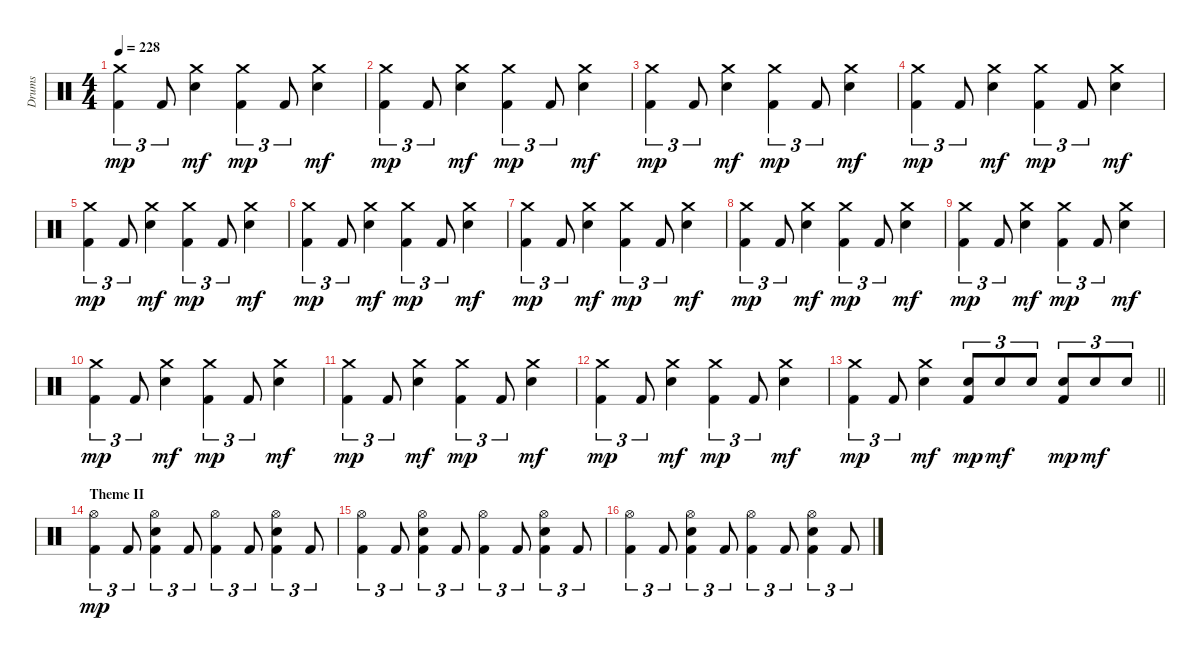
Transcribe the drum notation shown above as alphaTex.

\track ("Drums" "Drums") {instrument percussion}
\staff {score}
\articulation defaults
\ts (4 4)
\tempo 228
\clef neutral
\ks c
("Crash medium (hit)" "Kick (hit) 2").4{tu (3 2) dy mp} "Kick (hit) 2".8{tu (3 2)} ("Crash medium (hit)" "Electric Snare (hit)").4{dy mf} ("Crash medium (hit)" "Kick (hit) 2").4{tu (3 2) dy mp} "Kick (hit) 2".8{tu (3 2)} ("Crash medium (hit)" "Electric Snare (hit)").4{dy mf} |
("Crash medium (hit)" "Kick (hit) 2").4{tu (3 2) dy mp} "Kick (hit) 2".8{tu (3 2)} ("Crash medium (hit)" "Electric Snare (hit)").4{dy mf} ("Crash medium (hit)" "Kick (hit) 2").4{tu (3 2) dy mp} "Kick (hit) 2".8{tu (3 2)} ("Crash medium (hit)" "Electric Snare (hit)").4{dy mf} |
("Crash medium (hit)" "Kick (hit) 2").4{tu (3 2) dy mp} "Kick (hit) 2".8{tu (3 2)} ("Crash medium (hit)" "Electric Snare (hit)").4{dy mf} ("Crash medium (hit)" "Kick (hit) 2").4{tu (3 2) dy mp} "Kick (hit) 2".8{tu (3 2)} ("Crash medium (hit)" "Electric Snare (hit)").4{dy mf} |
("Crash medium (hit)" "Kick (hit) 2").4{tu (3 2) dy mp} "Kick (hit) 2".8{tu (3 2)} ("Crash medium (hit)" "Electric Snare (hit)").4{dy mf} ("Crash medium (hit)" "Kick (hit) 2").4{tu (3 2) dy mp} "Kick (hit) 2".8{tu (3 2)} ("Crash medium (hit)" "Electric Snare (hit)").4{dy mf} |
("Crash medium (hit)" "Kick (hit) 2").4{tu (3 2) dy mp} "Kick (hit) 2".8{tu (3 2)} ("Crash medium (hit)" "Electric Snare (hit)").4{dy mf} ("Crash medium (hit)" "Kick (hit) 2").4{tu (3 2) dy mp} "Kick (hit) 2".8{tu (3 2)} ("Crash medium (hit)" "Electric Snare (hit)").4{dy mf} |
("Crash medium (hit)" "Kick (hit) 2").4{tu (3 2) dy mp} "Kick (hit) 2".8{tu (3 2)} ("Crash medium (hit)" "Electric Snare (hit)").4{dy mf} ("Crash medium (hit)" "Kick (hit) 2").4{tu (3 2) dy mp} "Kick (hit) 2".8{tu (3 2)} ("Crash medium (hit)" "Electric Snare (hit)").4{dy mf} |
("Crash medium (hit)" "Kick (hit) 2").4{tu (3 2) dy mp} "Kick (hit) 2".8{tu (3 2)} ("Crash medium (hit)" "Electric Snare (hit)").4{dy mf} ("Crash medium (hit)" "Kick (hit) 2").4{tu (3 2) dy mp} "Kick (hit) 2".8{tu (3 2)} ("Crash medium (hit)" "Electric Snare (hit)").4{dy mf} |
("Crash medium (hit)" "Kick (hit) 2").4{tu (3 2) dy mp} "Kick (hit) 2".8{tu (3 2)} ("Crash medium (hit)" "Electric Snare (hit)").4{dy mf} ("Crash medium (hit)" "Kick (hit) 2").4{tu (3 2) dy mp} "Kick (hit) 2".8{tu (3 2)} ("Crash medium (hit)" "Electric Snare (hit)").4{dy mf} |
("Crash medium (hit)" "Kick (hit) 2").4{tu (3 2) dy mp} "Kick (hit) 2".8{tu (3 2)} ("Crash medium (hit)" "Electric Snare (hit)").4{dy mf} ("Crash medium (hit)" "Kick (hit) 2").4{tu (3 2) dy mp} "Kick (hit) 2".8{tu (3 2)} ("Crash medium (hit)" "Electric Snare (hit)").4{dy mf} |
("Crash medium (hit)" "Kick (hit) 2").4{tu (3 2) dy mp} "Kick (hit) 2".8{tu (3 2)} ("Crash medium (hit)" "Electric Snare (hit)").4{dy mf} ("Crash medium (hit)" "Kick (hit) 2").4{tu (3 2) dy mp} "Kick (hit) 2".8{tu (3 2)} ("Crash medium (hit)" "Electric Snare (hit)").4{dy mf} |
("Crash medium (hit)" "Kick (hit) 2").4{tu (3 2) dy mp} "Kick (hit) 2".8{tu (3 2)} ("Crash medium (hit)" "Electric Snare (hit)").4{dy mf} ("Crash medium (hit)" "Kick (hit) 2").4{tu (3 2) dy mp} "Kick (hit) 2".8{tu (3 2)} ("Crash medium (hit)" "Electric Snare (hit)").4{dy mf} |
("Crash medium (hit)" "Kick (hit) 2").4{tu (3 2) dy mp} "Kick (hit) 2".8{tu (3 2)} ("Crash medium (hit)" "Electric Snare (hit)").4{dy mf} ("Crash medium (hit)" "Kick (hit) 2").4{tu (3 2) dy mp} "Kick (hit) 2".8{tu (3 2)} ("Crash medium (hit)" "Electric Snare (hit)").4{dy mf} |
\barLineRight lightlight
("Crash medium (hit)" "Kick (hit) 2").4{tu (3 2) dy mp} "Kick (hit) 2".8{tu (3 2)} ("Crash medium (hit)" "Electric Snare (hit)").4{dy mf} ("Electric Snare (hit)" "Kick (hit) 2").8{tu (3 2) dy mp} "Electric Snare (hit)".8{tu (3 2) dy mf} "Electric Snare (hit)".8{tu (3 2)} ("Electric Snare (hit)" "Kick (hit) 2").8{tu (3 2) dy mp} "Electric Snare (hit)".8{tu (3 2) dy mf} "Electric Snare (hit)".8{tu (3 2)} |
\section ("" "Theme II")
("Hi-Hat (open)" "Kick (hit) 2").4{tu (3 2) dy mp} "Kick (hit) 2".8{tu (3 2)} ("Hi-Hat (open)" "Electric Snare (hit)" "Kick (hit) 2").4{tu (3 2)} "Kick (hit) 2".8{tu (3 2)} ("Hi-Hat (open)" "Kick (hit) 2").4{tu (3 2)} "Kick (hit) 2".8{tu (3 2)} ("Hi-Hat (open)" "Electric Snare (hit)" "Kick (hit) 2").4{tu (3 2)} "Kick (hit) 2".8{tu (3 2)} |
("Hi-Hat (open)" "Kick (hit) 2").4{tu (3 2)} "Kick (hit) 2".8{tu (3 2)} ("Hi-Hat (open)" "Electric Snare (hit)" "Kick (hit) 2").4{tu (3 2)} "Kick (hit) 2".8{tu (3 2)} ("Hi-Hat (open)" "Kick (hit) 2").4{tu (3 2)} "Kick (hit) 2".8{tu (3 2)} ("Hi-Hat (open)" "Electric Snare (hit)" "Kick (hit) 2").4{tu (3 2)} "Kick (hit) 2".8{tu (3 2)} |
("Hi-Hat (open)" "Kick (hit) 2").4{tu (3 2)} "Kick (hit) 2".8{tu (3 2)} ("Hi-Hat (open)" "Electric Snare (hit)" "Kick (hit) 2").4{tu (3 2)} "Kick (hit) 2".8{tu (3 2)} ("Hi-Hat (open)" "Kick (hit) 2").4{tu (3 2)} "Kick (hit) 2".8{tu (3 2)} ("Hi-Hat (open)" "Electric Snare (hit)" "Kick (hit) 2").4{tu (3 2)} "Kick (hit) 2".8{tu (3 2)}
